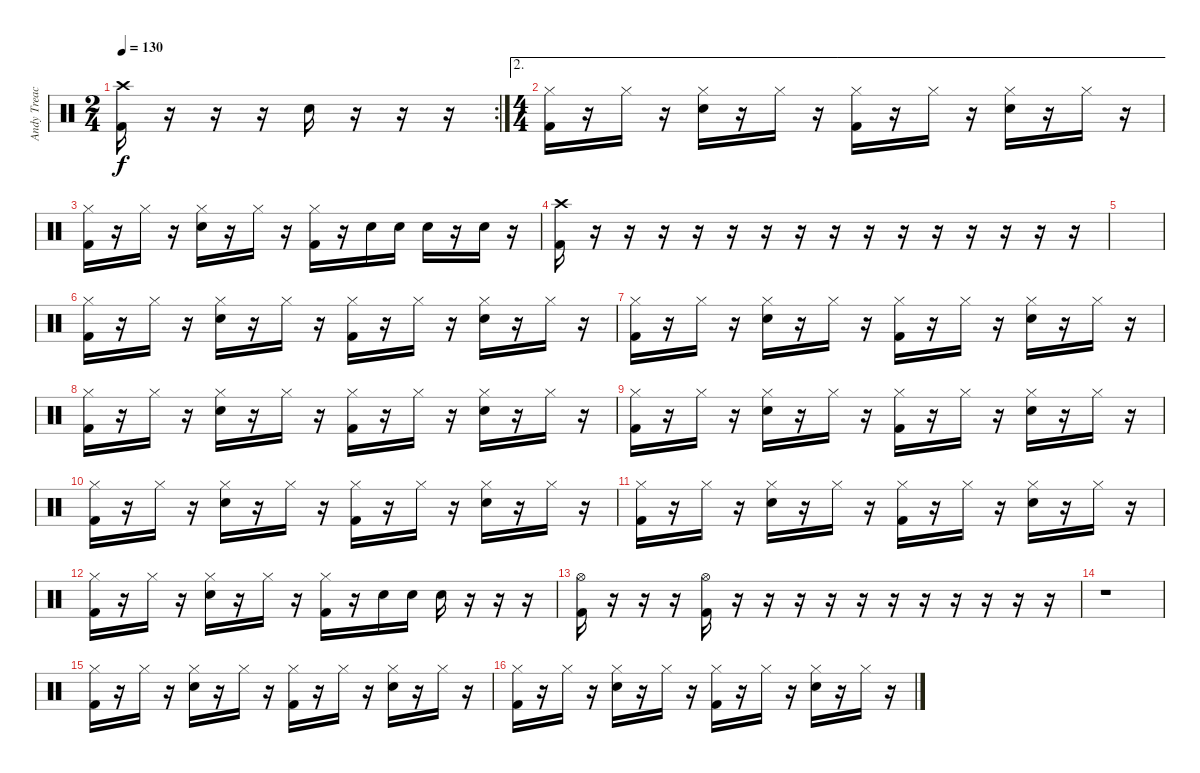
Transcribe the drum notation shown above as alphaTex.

\track ("Andy Treacey" "Andy Treac") {instrument percussion}
\staff {score}
\articulation defaults
\rc 2
\ts (2 4)
\tempo 130
\clef neutral
\ks c
("Crash high (hit)" "Kick (hit) 2").16{dy f} r.16 r.16 r.16 "Snare (hit) 2".16 r.16 r.16 r.16 |
\ae 2
\ts (4 4)
("Hi-Hat (closed)" "Kick (hit) 2").16 r.16 "Hi-Hat (closed)".16 r.16 ("Hi-Hat (closed)" "Snare (hit) 2").16 r.16 "Hi-Hat (closed)".16 r.16 ("Hi-Hat (closed)" "Kick (hit) 2").16 r.16 "Hi-Hat (closed)".16 r.16 ("Hi-Hat (closed)" "Snare (hit) 2").16 r.16 "Hi-Hat (closed)".16 r.16 |
("Hi-Hat (closed)" "Kick (hit) 2").16 r.16 "Hi-Hat (closed)".16 r.16 ("Hi-Hat (closed)" "Snare (hit) 2").16 r.16 "Hi-Hat (closed)".16 r.16 ("Hi-Hat (closed)" "Kick (hit) 2").16 r.16 "Snare (hit) 2".16 "Snare (hit) 2".16 "Snare (hit) 2".16 r.16 "Snare (hit) 2".16 r.16 |
("Crash high (hit)" "Kick (hit) 2").16 r.16 r.16 r.16 r.16 r.16 r.16 r.16 r.16 r.16 r.16 r.16 r.16 r.16 r.16 r.16 |
|
("Hi-Hat (closed)" "Kick (hit) 2").16 r.16 "Hi-Hat (closed)".16 r.16 ("Hi-Hat (closed)" "Snare (hit) 2").16 r.16 "Hi-Hat (closed)".16 r.16 ("Hi-Hat (closed)" "Kick (hit) 2").16 r.16 "Hi-Hat (closed)".16 r.16 ("Hi-Hat (closed)" "Snare (hit) 2").16 r.16 "Hi-Hat (closed)".16 r.16 |
("Hi-Hat (closed)" "Kick (hit) 2").16 r.16 "Hi-Hat (closed)".16 r.16 ("Hi-Hat (closed)" "Snare (hit) 2").16 r.16 "Hi-Hat (closed)".16 r.16 ("Hi-Hat (closed)" "Kick (hit) 2").16 r.16 "Hi-Hat (closed)".16 r.16 ("Hi-Hat (closed)" "Snare (hit) 2").16 r.16 "Hi-Hat (closed)".16 r.16 |
("Hi-Hat (closed)" "Kick (hit) 2").16 r.16 "Hi-Hat (closed)".16 r.16 ("Hi-Hat (closed)" "Snare (hit) 2").16 r.16 "Hi-Hat (closed)".16 r.16 ("Hi-Hat (closed)" "Kick (hit) 2").16 r.16 "Hi-Hat (closed)".16 r.16 ("Hi-Hat (closed)" "Snare (hit) 2").16 r.16 "Hi-Hat (closed)".16 r.16 |
("Hi-Hat (closed)" "Kick (hit) 2").16 r.16 "Hi-Hat (closed)".16 r.16 ("Hi-Hat (closed)" "Snare (hit) 2").16 r.16 "Hi-Hat (closed)".16 r.16 ("Hi-Hat (closed)" "Kick (hit) 2").16 r.16 "Hi-Hat (closed)".16 r.16 ("Hi-Hat (closed)" "Snare (hit) 2").16 r.16 "Hi-Hat (closed)".16 r.16 |
("Hi-Hat (closed)" "Kick (hit) 2").16 r.16 "Hi-Hat (closed)".16 r.16 ("Hi-Hat (closed)" "Snare (hit) 2").16 r.16 "Hi-Hat (closed)".16 r.16 ("Hi-Hat (closed)" "Kick (hit) 2").16 r.16 "Hi-Hat (closed)".16 r.16 ("Hi-Hat (closed)" "Snare (hit) 2").16 r.16 "Hi-Hat (closed)".16 r.16 |
("Hi-Hat (closed)" "Kick (hit) 2").16 r.16 "Hi-Hat (closed)".16 r.16 ("Hi-Hat (closed)" "Snare (hit) 2").16 r.16 "Hi-Hat (closed)".16 r.16 ("Hi-Hat (closed)" "Kick (hit) 2").16 r.16 "Hi-Hat (closed)".16 r.16 ("Hi-Hat (closed)" "Snare (hit) 2").16 r.16 "Hi-Hat (closed)".16 r.16 |
("Hi-Hat (closed)" "Kick (hit) 2").16 r.16 "Hi-Hat (closed)".16 r.16 ("Hi-Hat (closed)" "Snare (hit) 2").16 r.16 "Hi-Hat (closed)".16 r.16 ("Hi-Hat (closed)" "Kick (hit) 2").16 r.16 "Snare (hit) 2".16 "Snare (hit) 2".16 "Snare (hit) 2".16 r.16 r.16 r.16 |
("Hi-Hat (open)" "Kick (hit) 2").16 r.16 r.16 r.16 ("Hi-Hat (open)" "Kick (hit) 2").16 r.16 r.16 r.16 r.16 r.16 r.16 r.16 r.16 r.16 r.16 r.16 |
r.1 |
("Hi-Hat (closed)" "Kick (hit) 2").16 r.16 "Hi-Hat (closed)".16 r.16 ("Hi-Hat (closed)" "Snare (hit) 2").16 r.16 "Hi-Hat (closed)".16 r.16 ("Hi-Hat (closed)" "Kick (hit) 2").16 r.16 "Hi-Hat (closed)".16 r.16 ("Hi-Hat (closed)" "Snare (hit) 2").16 r.16 "Hi-Hat (closed)".16 r.16 |
("Hi-Hat (closed)" "Kick (hit) 2").16 r.16 "Hi-Hat (closed)".16 r.16 ("Hi-Hat (closed)" "Snare (hit) 2").16 r.16 "Hi-Hat (closed)".16 r.16 ("Hi-Hat (closed)" "Kick (hit) 2").16 r.16 "Hi-Hat (closed)".16 r.16 ("Hi-Hat (closed)" "Snare (hit) 2").16 r.16 "Hi-Hat (closed)".16 r.16
